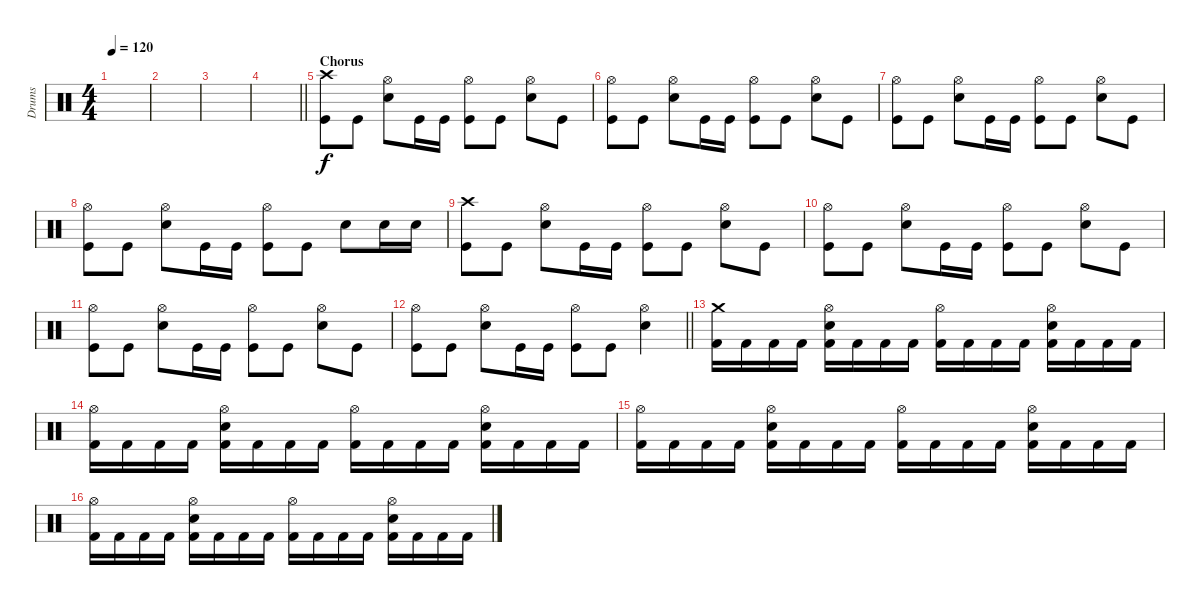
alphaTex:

\track ("Drums" "Drums") {instrument percussion}
\staff {score}
\articulation defaults
\ts (4 4)
\tempo 120
\clef neutral
\ks c
|
|
|
\barLineRight lightlight
|
\section ("" "Chorus")
("Crash high (hit)" "Kick (hit)").8 "Kick (hit)".8 ("Hi-Hat (open)" "Electric Snare (hit)").8 "Kick (hit)".16 "Kick (hit)".16 ("Hi-Hat (open)" "Kick (hit)").8 "Kick (hit)".8 ("Hi-Hat (open)" "Electric Snare (hit)").8 "Kick (hit)".8 |
("Hi-Hat (open)" "Kick (hit)").8 "Kick (hit)".8 ("Hi-Hat (open)" "Electric Snare (hit)").8 "Kick (hit)".16 "Kick (hit)".16 ("Hi-Hat (open)" "Kick (hit)").8 "Kick (hit)".8 ("Hi-Hat (open)" "Electric Snare (hit)").8 "Kick (hit)".8 |
("Hi-Hat (open)" "Kick (hit)").8 "Kick (hit)".8 ("Hi-Hat (open)" "Electric Snare (hit)").8 "Kick (hit)".16 "Kick (hit)".16 ("Hi-Hat (open)" "Kick (hit)").8 "Kick (hit)".8 ("Hi-Hat (open)" "Electric Snare (hit)").8 "Kick (hit)".8 |
("Hi-Hat (open)" "Kick (hit)").8 "Kick (hit)".8 ("Hi-Hat (open)" "Electric Snare (hit)").8 "Kick (hit)".16 "Kick (hit)".16 ("Hi-Hat (open)" "Kick (hit)").8 "Kick (hit)".8 "Electric Snare (hit)".8 "Electric Snare (hit)".16 "Electric Snare (hit)".16 |
("Crash high (hit)" "Kick (hit)").8 "Kick (hit)".8 ("Hi-Hat (open)" "Electric Snare (hit)").8 "Kick (hit)".16 "Kick (hit)".16 ("Hi-Hat (open)" "Kick (hit)").8 "Kick (hit)".8 ("Hi-Hat (open)" "Electric Snare (hit)").8 "Kick (hit)".8 |
("Hi-Hat (open)" "Kick (hit)").8 "Kick (hit)".8 ("Hi-Hat (open)" "Electric Snare (hit)").8 "Kick (hit)".16 "Kick (hit)".16 ("Hi-Hat (open)" "Kick (hit)").8 "Kick (hit)".8 ("Hi-Hat (open)" "Electric Snare (hit)").8 "Kick (hit)".8 |
("Hi-Hat (open)" "Kick (hit)").8 "Kick (hit)".8 ("Hi-Hat (open)" "Electric Snare (hit)").8 "Kick (hit)".16 "Kick (hit)".16 ("Hi-Hat (open)" "Kick (hit)").8 "Kick (hit)".8 ("Hi-Hat (open)" "Electric Snare (hit)").8 "Kick (hit)".8 |
\barLineRight lightlight
("Hi-Hat (open)" "Kick (hit)").8 "Kick (hit)".8 ("Hi-Hat (open)" "Electric Snare (hit)").8 "Kick (hit)".16 "Kick (hit)".16 ("Hi-Hat (open)" "Kick (hit)").8 "Kick (hit)".8 ("Hi-Hat (open)" "Electric Snare (hit)").4 |
("Kick (hit) 2" "Crash medium (hit)").16 "Kick (hit) 2".16 "Kick (hit) 2".16 "Kick (hit) 2".16 ("Kick (hit) 2" "Electric Snare (hit)" "Hi-Hat (open)").16 "Kick (hit) 2".16 "Kick (hit) 2".16 "Kick (hit) 2".16 ("Kick (hit) 2" "Hi-Hat (open)").16 "Kick (hit) 2".16 "Kick (hit) 2".16 "Kick (hit) 2".16 ("Kick (hit) 2" "Electric Snare (hit)" "Hi-Hat (open)").16 "Kick (hit) 2".16 "Kick (hit) 2".16 "Kick (hit) 2".16 |
("Kick (hit) 2" "Hi-Hat (open)").16 "Kick (hit) 2".16 "Kick (hit) 2".16 "Kick (hit) 2".16 ("Kick (hit) 2" "Electric Snare (hit)" "Hi-Hat (open)").16 "Kick (hit) 2".16 "Kick (hit) 2".16 "Kick (hit) 2".16 ("Kick (hit) 2" "Hi-Hat (open)").16 "Kick (hit) 2".16 "Kick (hit) 2".16 "Kick (hit) 2".16 ("Kick (hit) 2" "Electric Snare (hit)" "Hi-Hat (open)").16 "Kick (hit) 2".16 "Kick (hit) 2".16 "Kick (hit) 2".16 |
("Kick (hit) 2" "Hi-Hat (open)").16 "Kick (hit) 2".16 "Kick (hit) 2".16 "Kick (hit) 2".16 ("Kick (hit) 2" "Electric Snare (hit)" "Hi-Hat (open)").16 "Kick (hit) 2".16 "Kick (hit) 2".16 "Kick (hit) 2".16 ("Kick (hit) 2" "Hi-Hat (open)").16 "Kick (hit) 2".16 "Kick (hit) 2".16 "Kick (hit) 2".16 ("Kick (hit) 2" "Electric Snare (hit)" "Hi-Hat (open)").16 "Kick (hit) 2".16 "Kick (hit) 2".16 "Kick (hit) 2".16 |
("Kick (hit) 2" "Hi-Hat (open)").16 "Kick (hit) 2".16 "Kick (hit) 2".16 "Kick (hit) 2".16 ("Kick (hit) 2" "Electric Snare (hit)" "Hi-Hat (open)").16 "Kick (hit) 2".16 "Kick (hit) 2".16 "Kick (hit) 2".16 ("Kick (hit) 2" "Hi-Hat (open)").16 "Kick (hit) 2".16 "Kick (hit) 2".16 "Kick (hit) 2".16 ("Kick (hit) 2" "Electric Snare (hit)" "Hi-Hat (open)").16 "Kick (hit) 2".16 "Kick (hit) 2".16 "Kick (hit) 2".16
